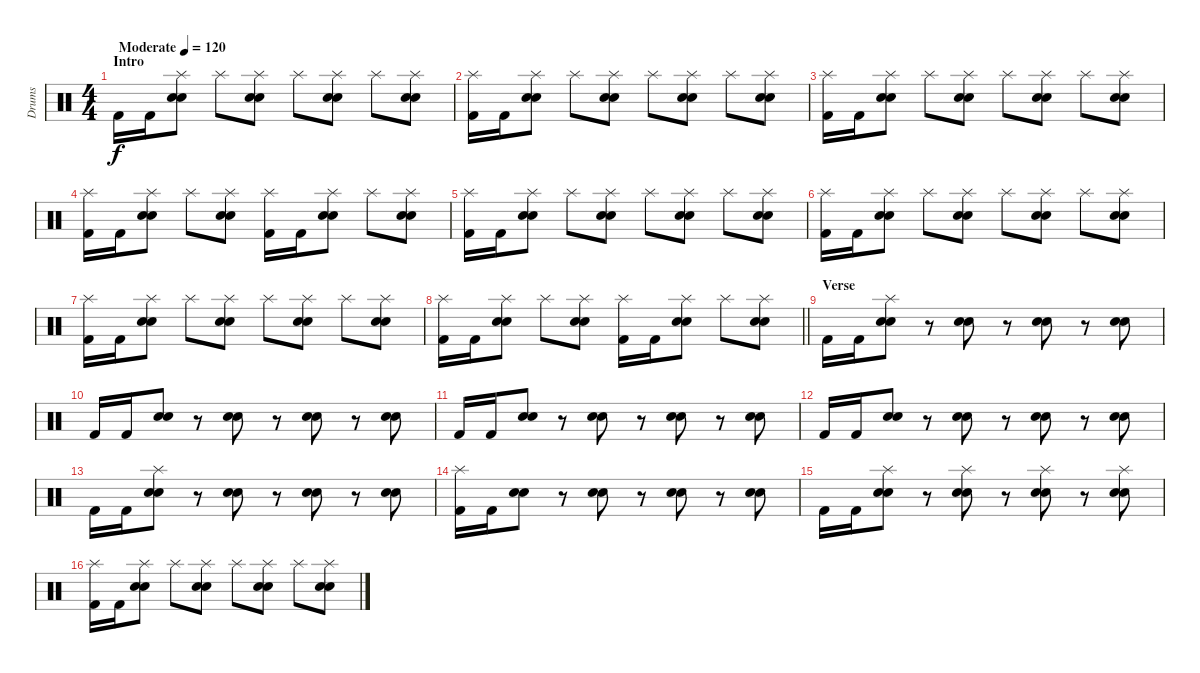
\track ("Drums" "Drums") {instrument percussion}
\staff {score}
\articulation defaults
\ts (4 4)
\section ("" "Intro")
\tempo (120 "Moderate")
\clef neutral
\ks c "Kick (hit) 2".16{dy f} "Kick (hit) 2".16
("Splash (hit)" "Electric Snare (hit)" "Snare (hit) 2").8 "Splash (hit)".8 ("Splash (hit)" "Electric Snare (hit)" "Snare (hit) 2").8 "Splash (hit)".8 ("Splash (hit)" "Electric Snare (hit)" "Snare (hit) 2").8 "Splash (hit)".8 ("Splash (hit)" "Electric Snare (hit)" "Snare (hit) 2").8 |
("Splash (hit)" "Kick (hit) 2").16 "Kick (hit) 2".16 ("Splash (hit)" "Electric Snare (hit)" "Snare (hit) 2").8 "Splash (hit)".8 ("Splash (hit)" "Electric Snare (hit)" "Snare (hit) 2").8 "Splash (hit)".8 ("Splash (hit)" "Electric Snare (hit)" "Snare (hit) 2").8 "Splash (hit)".8 ("Splash (hit)" "Electric Snare (hit)" "Snare (hit) 2").8 |
("Splash (hit)" "Kick (hit) 2").16 "Kick (hit) 2".16 ("Splash (hit)" "Electric Snare (hit)" "Snare (hit) 2").8 "Splash (hit)".8 ("Splash (hit)" "Electric Snare (hit)" "Snare (hit) 2").8 "Splash (hit)".8 ("Splash (hit)" "Electric Snare (hit)" "Snare (hit) 2").8 "Splash (hit)".8 ("Splash (hit)" "Electric Snare (hit)" "Snare (hit) 2").8 |
("Splash (hit)" "Kick (hit) 2").16 "Kick (hit) 2".16 ("Splash (hit)" "Electric Snare (hit)" "Snare (hit) 2").8 "Splash (hit)".8 ("Splash (hit)" "Electric Snare (hit)" "Snare (hit) 2").8 ("Splash (hit)" "Kick (hit) 2").16 "Kick (hit) 2".16 ("Splash (hit)" "Electric Snare (hit)" "Snare (hit) 2").8 "Splash (hit)".8 ("Splash (hit)" "Electric Snare (hit)" "Snare (hit) 2").8 |
("Splash (hit)" "Kick (hit) 2").16 "Kick (hit) 2".16 ("Splash (hit)" "Electric Snare (hit)" "Snare (hit) 2").8 "Splash (hit)".8 ("Splash (hit)" "Electric Snare (hit)" "Snare (hit) 2").8 "Splash (hit)".8 ("Splash (hit)" "Electric Snare (hit)" "Snare (hit) 2").8 "Splash (hit)".8 ("Splash (hit)" "Electric Snare (hit)" "Snare (hit) 2").8 |
("Splash (hit)" "Kick (hit) 2").16 "Kick (hit) 2".16 ("Splash (hit)" "Electric Snare (hit)" "Snare (hit) 2").8 "Splash (hit)".8 ("Splash (hit)" "Electric Snare (hit)" "Snare (hit) 2").8 "Splash (hit)".8 ("Splash (hit)" "Electric Snare (hit)" "Snare (hit) 2").8 "Splash (hit)".8 ("Splash (hit)" "Electric Snare (hit)" "Snare (hit) 2").8 |
("Splash (hit)" "Kick (hit) 2").16 "Kick (hit) 2".16 ("Splash (hit)" "Electric Snare (hit)" "Snare (hit) 2").8 "Splash (hit)".8 ("Splash (hit)" "Electric Snare (hit)" "Snare (hit) 2").8 "Splash (hit)".8 ("Splash (hit)" "Electric Snare (hit)" "Snare (hit) 2").8 "Splash (hit)".8 ("Splash (hit)" "Electric Snare (hit)" "Snare (hit) 2").8 |
\barLineRight lightlight
("Splash (hit)" "Kick (hit) 2").16 "Kick (hit) 2".16 ("Splash (hit)" "Electric Snare (hit)" "Snare (hit) 2").8 "Splash (hit)".8 ("Splash (hit)" "Electric Snare (hit)" "Snare (hit) 2").8 ("Splash (hit)" "Kick (hit) 2").16 "Kick (hit) 2".16 ("Splash (hit)" "Electric Snare (hit)" "Snare (hit) 2").8 "Splash (hit)".8 ("Splash (hit)" "Electric Snare (hit)" "Snare (hit) 2").8 |
\section ("" "Verse")
"Kick (hit) 2".16 "Kick (hit) 2".16 ("Splash (hit)" "Electric Snare (hit)" "Snare (hit) 2").8 r.8 ("Electric Snare (hit)" "Snare (hit) 2").8 r.8 ("Electric Snare (hit)" "Snare (hit) 2").8 r.8 ("Electric Snare (hit)" "Snare (hit) 2").8 |
"Kick (hit) 2".16 "Kick (hit) 2".16 ("Electric Snare (hit)" "Snare (hit) 2").8 r.8 ("Electric Snare (hit)" "Snare (hit) 2").8 r.8 ("Electric Snare (hit)" "Snare (hit) 2").8 r.8 ("Electric Snare (hit)" "Snare (hit) 2").8 |
"Kick (hit) 2".16 "Kick (hit) 2".16 ("Electric Snare (hit)" "Snare (hit) 2").8 r.8 ("Electric Snare (hit)" "Snare (hit) 2").8 r.8 ("Electric Snare (hit)" "Snare (hit) 2").8 r.8 ("Electric Snare (hit)" "Snare (hit) 2").8 |
"Kick (hit) 2".16 "Kick (hit) 2".16 ("Electric Snare (hit)" "Snare (hit) 2").8 r.8 ("Electric Snare (hit)" "Snare (hit) 2").8 r.8 ("Electric Snare (hit)" "Snare (hit) 2").8 r.8 ("Electric Snare (hit)" "Snare (hit) 2").8 |
"Kick (hit) 2".16 "Kick (hit) 2".16 ("Splash (hit)" "Electric Snare (hit)" "Snare (hit) 2").8 r.8 ("Electric Snare (hit)" "Snare (hit) 2").8 r.8 ("Electric Snare (hit)" "Snare (hit) 2").8 r.8 ("Electric Snare (hit)" "Snare (hit) 2").8 |
("Splash (hit)" "Kick (hit) 2").16 "Kick (hit) 2".16 ("Electric Snare (hit)" "Snare (hit) 2").8 r.8 ("Electric Snare (hit)" "Snare (hit) 2").8 r.8 ("Electric Snare (hit)" "Snare (hit) 2").8 r.8 ("Electric Snare (hit)" "Snare (hit) 2").8 |
"Kick (hit) 2".16 "Kick (hit) 2".16 ("Splash (hit)" "Electric Snare (hit)" "Snare (hit) 2").8 r.8 ("Splash (hit)" "Electric Snare (hit)" "Snare (hit) 2").8 r.8 ("Splash (hit)" "Electric Snare (hit)" "Snare (hit) 2").8 r.8 ("Splash (hit)" "Electric Snare (hit)" "Snare (hit) 2").8 |
("Splash (hit)" "Kick (hit) 2").16 "Kick (hit) 2".16 ("Splash (hit)" "Electric Snare (hit)" "Snare (hit) 2").8 "Splash (hit)".8 ("Splash (hit)" "Electric Snare (hit)" "Snare (hit) 2").8 "Splash (hit)".8 ("Splash (hit)" "Electric Snare (hit)" "Snare (hit) 2").8 "Splash (hit)".8 ("Splash (hit)" "Electric Snare (hit)" "Snare (hit) 2").8
